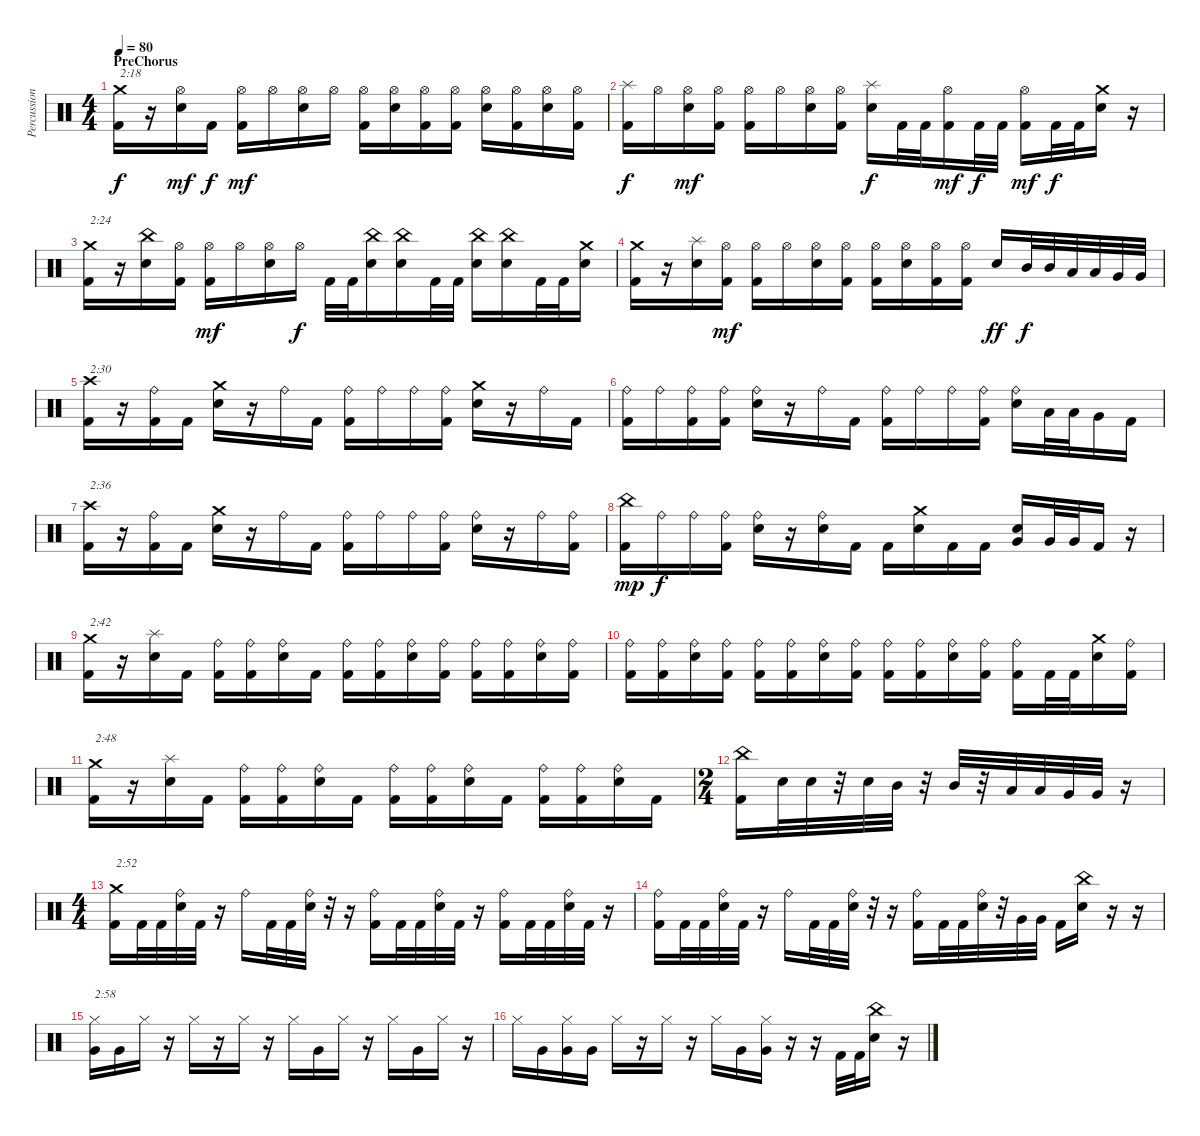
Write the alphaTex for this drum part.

\track ("Percussion" "Percussion") {instrument percussion}
\staff {score}
\articulation defaults
\ts (4 4)
\section ("" "PreChorus")
\tempo 80
\clef neutral
\ks c
("Crash medium (hit)" "Kick (hit) 2").16{txt "2:18" dy f} r.16 ("Hi-Hat (open)" "Snare (hit) 2").16{dy mf} "Kick (hit) 2".16{dy f} ("Hi-Hat (open)" "Kick (hit) 2").16{dy mf} "Hi-Hat (open)".16 ("Hi-Hat (open)" "Snare (hit) 2").16 "Hi-Hat (open)".16 ("Hi-Hat (open)" "Kick (hit) 2").16 ("Hi-Hat (open)" "Snare (hit) 2").16 ("Hi-Hat (open)" "Kick (hit) 2").16 ("Hi-Hat (open)" "Kick (hit) 2").16 ("Hi-Hat (open)" "Snare (hit) 2").16 ("Hi-Hat (open)" "Kick (hit) 2").16 ("Hi-Hat (open)" "Snare (hit) 2").16 ("Hi-Hat (open)" "Kick (hit) 2").16 |
("Splash (hit)" "Kick (hit) 2").16{dy f} "Hi-Hat (open)".16 ("Hi-Hat (open)" "Snare (hit) 2").16{dy mf} ("Hi-Hat (open)" "Kick (hit) 2").16 ("Hi-Hat (open)" "Kick (hit) 2").16 "Hi-Hat (open)".16 ("Hi-Hat (open)" "Snare (hit) 2").16 ("Hi-Hat (open)" "Kick (hit) 2").16 ("Splash (hit)" "Snare (hit) 2").16{dy f} "Kick (hit) 2".32 "Kick (hit) 2".32 ("Hi-Hat (open)" "Kick (hit) 2").16{dy mf} "Kick (hit) 2".32{dy f} "Kick (hit) 2".32 ("Hi-Hat (open)" "Kick (hit) 2").16{dy mf} "Kick (hit) 2".32{dy f} "Kick (hit) 2".32 ("Crash medium (hit)" "Snare (hit) 2").16 r.16 |
("Crash medium (hit)" "Kick (hit) 2").16{txt "2:24"} r.16 ("China (hit)" "Snare (hit) 2").16 ("Hi-Hat (open)" "Kick (hit) 2").16 ("Hi-Hat (open)" "Kick (hit) 2").16{dy mf} "Hi-Hat (open)".16 ("Hi-Hat (open)" "Snare (hit) 2").16 "Hi-Hat (open)".16{dy f} "Kick (hit) 2".32 "Kick (hit) 2".32 ("China (hit)" "Snare (hit) 2").16 ("China (hit)" "Snare (hit) 2").16 "Kick (hit) 2".32 "Kick (hit) 2".32 ("China (hit)" "Snare (hit) 2").16 ("China (hit)" "Snare (hit) 2").16 "Kick (hit) 2".32 "Kick (hit) 2".32 ("Crash medium (hit)" "Snare (hit) 2").16 |
("Crash medium (hit)" "Kick (hit) 2").16 r.16 ("Splash (hit)" "Snare (hit) 2").16 ("Hi-Hat (open)" "Kick (hit) 2").16{dy mf} ("Hi-Hat (open)" "Kick (hit) 2").16 "Hi-Hat (open)".16 ("Hi-Hat (open)" "Snare (hit) 2").16 ("Hi-Hat (open)" "Kick (hit) 2").16 ("Hi-Hat (open)" "Kick (hit) 2").16 ("Hi-Hat (open)" "Snare (hit) 2").16 ("Hi-Hat (open)" "Kick (hit) 2").16 ("Hi-Hat (open)" "Kick (hit) 2").16 "Snare (hit) 2".16{dy ff} "Mid Tom (hit)".32{dy f} "Mid Tom (hit)".32 "Low Tom (hit)".32 "Low Tom (hit)".32 "Very Low Tom (hit)".32 "Very Low Tom (hit)".32 |
("Crash high (hit)" "Kick (hit) 2").16{txt "2:30"} r.16 ("Ride (bell)" "Kick (hit) 2").16 "Kick (hit) 2".16 ("Crash medium (hit)" "Snare (hit) 2").16 r.16 "Ride (bell)".16 "Kick (hit) 2".16 ("Ride (bell)" "Kick (hit) 2").16 "Ride (bell)".16 "Ride (bell)".16 ("Ride (bell)" "Kick (hit) 2").16 ("Crash medium (hit)" "Snare (hit) 2").16 r.16 "Ride (bell)".16 "Kick (hit) 2".16 |
("Ride (bell)" "Kick (hit) 2").16 "Ride (bell)".16 ("Ride (bell)" "Kick (hit) 2").16 ("Ride (bell)" "Kick (hit) 2").16 ("Ride (bell)" "Snare (hit) 2").16 r.16 "Ride (bell)".16 "Kick (hit) 2".16 ("Ride (bell)" "Kick (hit) 2").16 "Ride (bell)".16 "Ride (bell)".16 ("Ride (bell)" "Kick (hit) 2").16 ("Ride (bell)" "Snare (hit) 2").16 "Low Tom (hit)".32 "Low Tom (hit)".32 "Very Low Tom (hit)".16 "Kick (hit) 2".16 |
("Crash high (hit)" "Kick (hit) 2").16{txt "2:36"} r.16 ("Ride (bell)" "Kick (hit) 2").16 "Kick (hit) 2".16 ("Crash medium (hit)" "Snare (hit) 2").16 r.16 "Ride (bell)".16 "Kick (hit) 2".16 ("Ride (bell)" "Kick (hit) 2").16 "Ride (bell)".16 "Ride (bell)".16 ("Ride (bell)" "Kick (hit) 2").16 ("Ride (bell)" "Snare (hit) 2").16 r.16 "Ride (bell)".16 ("Ride (bell)" "Kick (hit) 2").16 |
("China (hit)" "Kick (hit) 2").16{dy mp} "Ride (bell)".16{dy f} "Ride (bell)".16 ("Ride (bell)" "Kick (hit) 2").16 ("Ride (bell)" "Snare (hit) 2").16 r.16 ("Ride (bell)" "Snare (hit) 2").16 "Kick (hit) 2".16 "Kick (hit) 2".16 ("Crash medium (hit)" "Snare (hit) 2").16 "Kick (hit) 2".16 "Kick (hit) 2".16 ("Very Low Tom (hit)" "Snare (hit) 2").16 "Very Low Tom (hit)".32 "Very Low Tom (hit)".32 "Kick (hit) 2".16 r.16 |
("Crash medium (hit)" "Kick (hit) 2").16{txt "2:42"} r.16 ("Splash (hit)" "Snare (hit) 2").16 "Kick (hit) 2".16 ("Ride (bell)" "Kick (hit) 2").16 ("Ride (bell)" "Kick (hit) 2").16 ("Ride (bell)" "Snare (hit) 2").16 "Kick (hit) 2".16 ("Ride (bell)" "Kick (hit) 2").16 ("Ride (bell)" "Kick (hit) 2").16 ("Ride (bell)" "Snare (hit) 2").16 ("Ride (bell)" "Kick (hit) 2").16 ("Ride (bell)" "Kick (hit) 2").16 ("Ride (bell)" "Kick (hit) 2").16 ("Ride (bell)" "Snare (hit) 2").16 ("Ride (bell)" "Kick (hit) 2").16 |
("Ride (bell)" "Kick (hit) 2").16 ("Ride (bell)" "Kick (hit) 2").16 ("Ride (bell)" "Snare (hit) 2").16 ("Ride (bell)" "Kick (hit) 2").16 ("Ride (bell)" "Kick (hit) 2").16 ("Ride (bell)" "Kick (hit) 2").16 ("Ride (bell)" "Snare (hit) 2").16 ("Ride (bell)" "Kick (hit) 2").16 ("Ride (bell)" "Kick (hit) 2").16 ("Ride (bell)" "Kick (hit) 2").16 ("Ride (bell)" "Snare (hit) 2").16 ("Ride (bell)" "Kick (hit) 2").16 ("Ride (bell)" "Kick (hit) 2").16 "Kick (hit) 2".32 "Kick (hit) 2".32 ("Crash medium (hit)" "Snare (hit) 2").16 ("Ride (bell)" "Kick (hit) 2").16 |
("Crash medium (hit)" "Kick (hit) 2").16{txt "2:48"} r.16 ("Splash (hit)" "Snare (hit) 2").16 "Kick (hit) 2".16 ("Ride (bell)" "Kick (hit) 2").16 ("Ride (bell)" "Kick (hit) 2").16 ("Ride (bell)" "Snare (hit) 2").16 "Kick (hit) 2".16 ("Ride (bell)" "Kick (hit) 2").16 ("Ride (bell)" "Kick (hit) 2").16 ("Ride (bell)" "Snare (hit) 2").16 "Kick (hit) 2".16 ("Ride (bell)" "Kick (hit) 2").16 ("Ride (bell)" "Kick (hit) 2").16 ("Ride (bell)" "Snare (hit) 2").16 "Kick (hit) 2".16 |
\ts (2 4)
("China (hit)" "Kick (hit) 2").16 "Snare (hit) 2".32 "Snare (hit) 2".32 r.32 "Snare (hit) 2".32 "Mid Tom (hit)".32 r.32 "Mid Tom (hit)".32 r.32 "Low Tom (hit)".32 "Low Tom (hit)".32 "Very Low Tom (hit)".32 "Very Low Tom (hit)".32 r.16 |
\ts (4 4)
("Crash medium (hit)" "Kick (hit) 2").16{txt "2:52"} "Kick (hit) 2".32 "Kick (hit) 2".32 ("Ride (bell)" "Snare (hit) 2").32 "Kick (hit) 2".32 r.16 "Ride (bell)".16 "Kick (hit) 2".32 "Kick (hit) 2".32 ("Ride (bell)" "Snare (hit) 2").32 r.32 r.16 ("Ride (bell)" "Kick (hit) 2").16 "Kick (hit) 2".32 "Kick (hit) 2".32 ("Ride (bell)" "Snare (hit) 2").32 "Kick (hit) 2".32 r.16 ("Ride (bell)" "Kick (hit) 2").16 "Kick (hit) 2".32 "Kick (hit) 2".32 ("Ride (bell)" "Snare (hit) 2").32 "Kick (hit) 2".32 r.16 |
("Ride (bell)" "Kick (hit) 2").16 "Kick (hit) 2".32 "Kick (hit) 2".32 ("Ride (bell)" "Snare (hit) 2").32 "Kick (hit) 2".32 r.16 "Ride (bell)".16 "Kick (hit) 2".32 "Kick (hit) 2".32 ("Ride (bell)" "Snare (hit) 2").32 r.32 r.16 ("Ride (bell)" "Kick (hit) 2").16 "Kick (hit) 2".32 "Kick (hit) 2".32 ("Ride (bell)" "Snare (hit) 2").32 r.32 "Very Low Tom (hit)".32 "Very Low Tom (hit)".32 "Kick (hit) 2".16 ("China (hit)" "Snare (hit) 2").16 r.16 r.16 |
("Hi-Hat (closed)" "Very Low Tom (hit)").16{txt "2:58"} "Very Low Tom (hit)".16 "Hi-Hat (closed)".16 r.16 "Hi-Hat (closed)".16 r.16 "Hi-Hat (closed)".16 r.16 "Hi-Hat (closed)".16 "Very Low Tom (hit)".16 "Hi-Hat (closed)".16 r.16 "Hi-Hat (closed)".16 "Very Low Tom (hit)".16 "Hi-Hat (closed)".16 r.16 |
"Hi-Hat (closed)".16 "Very Low Tom (hit)".16 ("Hi-Hat (closed)" "Very Low Tom (hit)").16 "Very Low Tom (hit)".16 "Hi-Hat (closed)".16 r.16 "Hi-Hat (closed)".16 r.16 "Hi-Hat (closed)".16 "Very Low Tom (hit)".16 ("Hi-Hat (closed)" "Very Low Tom (hit)").16 r.16 r.16 "Kick (hit) 2".32 "Kick (hit) 2".32 ("China (hit)" "Snare (hit) 2").16 r.16
